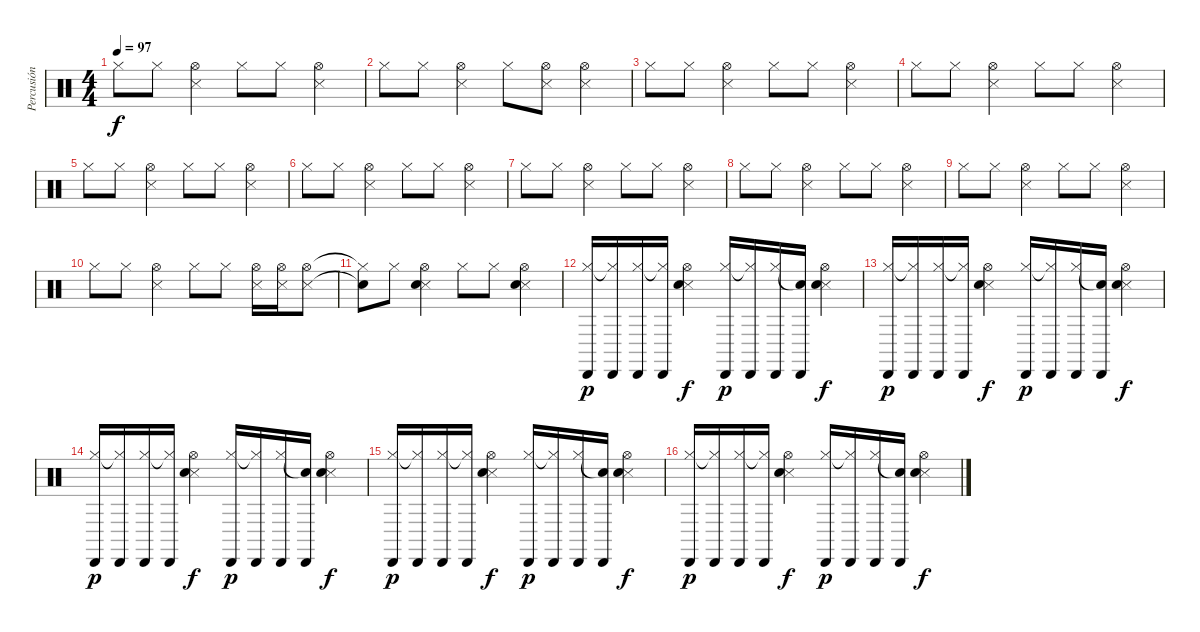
\track ("Percusión" "Percusión") {instrument percussion}
\staff {score}
\articulation defaults
\ts (4 4)
\tempo 97
\clef neutral
\ks c "Hi-Hat (closed)".8{dy f} "Hi-Hat (closed)".8
("Hi-Hat (open)" "Snare (side stick) 3").4 "Hi-Hat (closed)".8 "Hi-Hat (closed)".8 ("Hi-Hat (open)" "Snare (side stick) 3").4 |
"Hi-Hat (closed)".8 "Hi-Hat (closed)".8 ("Hi-Hat (open)" "Snare (side stick) 3").4 "Hi-Hat (closed)".8 ("Hi-Hat (open)" "Snare (side stick) 3").8 ("Hi-Hat (open)" "Snare (side stick) 3").4 |
"Hi-Hat (closed)".8 "Hi-Hat (closed)".8 ("Hi-Hat (open)" "Snare (side stick) 3").4 "Hi-Hat (closed)".8 "Hi-Hat (closed)".8 ("Hi-Hat (open)" "Snare (side stick) 3").4 |
"Hi-Hat (closed)".8 "Hi-Hat (closed)".8 ("Hi-Hat (open)" "Snare (side stick) 3").4 "Hi-Hat (closed)".8 "Hi-Hat (closed)".8 ("Hi-Hat (open)" "Snare (side stick) 3").4 |
"Hi-Hat (closed)".8 "Hi-Hat (closed)".8 ("Hi-Hat (open)" "Snare (side stick) 3").4 "Hi-Hat (closed)".8 "Hi-Hat (closed)".8 ("Hi-Hat (open)" "Snare (side stick) 3").4 |
"Hi-Hat (closed)".8 "Hi-Hat (closed)".8 ("Hi-Hat (open)" "Snare (side stick) 3").4 "Hi-Hat (closed)".8 "Hi-Hat (closed)".8 ("Hi-Hat (open)" "Snare (side stick) 3").4 |
"Hi-Hat (closed)".8 "Hi-Hat (closed)".8 ("Hi-Hat (open)" "Snare (side stick) 3").4 "Hi-Hat (closed)".8 "Hi-Hat (closed)".8 ("Hi-Hat (open)" "Snare (side stick) 3").4 |
"Hi-Hat (closed)".8 "Hi-Hat (closed)".8 ("Hi-Hat (open)" "Snare (side stick) 3").4 "Hi-Hat (closed)".8 "Hi-Hat (closed)".8 ("Hi-Hat (open)" "Snare (side stick) 3").4 |
"Hi-Hat (closed)".8 "Hi-Hat (closed)".8 ("Hi-Hat (open)" "Snare (side stick) 3").4 "Hi-Hat (closed)".8 "Hi-Hat (closed)".8 ("Hi-Hat (open)" "Snare (side stick) 3").4 |
"Hi-Hat (closed)".8 "Hi-Hat (closed)".8 ("Hi-Hat (open)" "Snare (side stick) 3").4 "Hi-Hat (closed)".8 "Hi-Hat (closed)".8 ("Hi-Hat (open)" "Snare (side stick) 3").16 ("Hi-Hat (open)" "Snare (side stick) 3").16 ("Hi-Hat (open)" "Snare (side stick) 3").8 |
("Hi-Hat (closed)"{t} "Snare (hit)"{t}).8 "Hi-Hat (closed)".8 ("Hi-Hat (open)" "Snare (side stick) 3" "Electric Snare (hit)").4 "Hi-Hat (closed)".8 "Hi-Hat (closed)".8 ("Hi-Hat (open)" "Snare (side stick) 3" "Electric Snare (hit)").4 |
("Hi-Hat (closed)" "Cabasa (hit)").16{dy p} ("Hi-Hat (closed)"{t} "Cabasa (hit)").16 ("Hi-Hat (closed)" "Cabasa (hit)").16 ("Hi-Hat (closed)"{t} "Cabasa (hit)").16 ("Hi-Hat (open)" "Snare (side stick) 3" "Electric Snare (hit)").4{dy f} ("Hi-Hat (closed)" "Cabasa (hit)").16{dy p} ("Hi-Hat (closed)"{t} "Cabasa (hit)").16 ("Hi-Hat (closed)" "Cabasa (hit)").16 ("Snare (hit)"{t} "Cabasa (hit)").16 ("Hi-Hat (open)" "Snare (side stick) 3" "Electric Snare (hit)").4{dy f} |
("Hi-Hat (closed)" "Cabasa (hit)").16{dy p} ("Hi-Hat (closed)"{t} "Cabasa (hit)").16 ("Hi-Hat (closed)" "Cabasa (hit)").16 ("Hi-Hat (closed)"{t} "Cabasa (hit)").16 ("Hi-Hat (open)" "Snare (side stick) 3" "Electric Snare (hit)").4{dy f} ("Hi-Hat (closed)" "Cabasa (hit)").16{dy p} ("Hi-Hat (closed)"{t} "Cabasa (hit)").16 ("Hi-Hat (closed)" "Cabasa (hit)").16 ("Snare (hit)"{t} "Cabasa (hit)").16 ("Hi-Hat (open)" "Snare (side stick) 3" "Electric Snare (hit)").4{dy f} |
("Hi-Hat (closed)" "Cabasa (hit)").16{dy p} ("Hi-Hat (closed)"{t} "Cabasa (hit)").16 ("Hi-Hat (closed)" "Cabasa (hit)").16 ("Hi-Hat (closed)"{t} "Cabasa (hit)").16 ("Hi-Hat (open)" "Snare (side stick) 3" "Electric Snare (hit)").4{dy f} ("Hi-Hat (closed)" "Cabasa (hit)").16{dy p} ("Hi-Hat (closed)"{t} "Cabasa (hit)").16 ("Hi-Hat (closed)" "Cabasa (hit)").16 ("Snare (hit)"{t} "Cabasa (hit)").16 ("Hi-Hat (open)" "Snare (side stick) 3" "Electric Snare (hit)").4{dy f} |
("Hi-Hat (closed)" "Cabasa (hit)").16{dy p} ("Hi-Hat (closed)"{t} "Cabasa (hit)").16 ("Hi-Hat (closed)" "Cabasa (hit)").16 ("Hi-Hat (closed)"{t} "Cabasa (hit)").16 ("Hi-Hat (open)" "Snare (side stick) 3" "Electric Snare (hit)").4{dy f} ("Hi-Hat (closed)" "Cabasa (hit)").16{dy p} ("Hi-Hat (closed)"{t} "Cabasa (hit)").16 ("Hi-Hat (closed)" "Cabasa (hit)").16 ("Snare (hit)"{t} "Cabasa (hit)").16 ("Hi-Hat (open)" "Snare (side stick) 3" "Electric Snare (hit)").4{dy f} |
("Hi-Hat (closed)" "Cabasa (hit)").16{dy p} ("Hi-Hat (closed)"{t} "Cabasa (hit)").16 ("Hi-Hat (closed)" "Cabasa (hit)").16 ("Hi-Hat (closed)"{t} "Cabasa (hit)").16 ("Hi-Hat (open)" "Snare (side stick) 3" "Electric Snare (hit)").4{dy f} ("Hi-Hat (closed)" "Cabasa (hit)").16{dy p} ("Hi-Hat (closed)"{t} "Cabasa (hit)").16 ("Hi-Hat (closed)" "Cabasa (hit)").16 ("Snare (hit)"{t} "Cabasa (hit)").16 ("Hi-Hat (open)" "Snare (side stick) 3" "Electric Snare (hit)").4{dy f}
